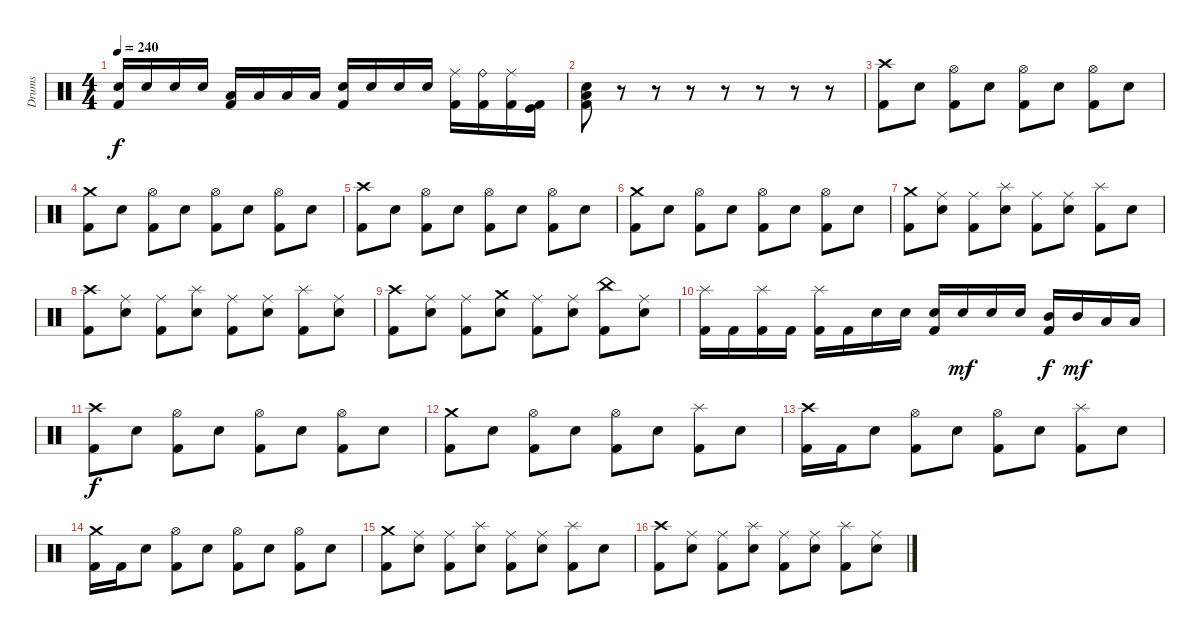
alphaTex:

\track ("Drums" "Drums") {instrument percussion}
\staff {score}
\articulation defaults
\ts (4 4)
\tempo 240
\clef neutral
\ks c
("Electric Snare (hit)" "Kick (hit) 2").16{dy f} "Electric Snare (hit)".16 "Electric Snare (hit)".16 "Electric Snare (hit)".16 ("Low Tom (hit)" "Kick (hit) 2").16 "Low Tom (hit)".16 "Low Tom (hit)".16 "Low Tom (hit)".16 ("Electric Snare (hit)" "Kick (hit) 2").16 "Electric Snare (hit)".16 "Electric Snare (hit)".16 "Electric Snare (hit)".16 ("Ride (middle)" "Kick (hit) 2").16 ("Ride (bell)" "Kick (hit) 2").16 ("Ride (middle)" "Kick (hit) 2").16 ("Kick (hit)" "Kick (hit) 2").16 |
("Low Floor Tom (hit)" "Electric Snare (hit)" "Kick (hit) 2").8 r.8 r.8 r.8 r.8 r.8 r.8 r.8 |
("Crash high (hit)" "Kick (hit) 2").8 "Electric Snare (hit)".8 ("Hi-Hat (open)" "Kick (hit) 2").8 "Electric Snare (hit)".8 ("Hi-Hat (open)" "Kick (hit) 2").8 "Electric Snare (hit)".8 ("Hi-Hat (open)" "Kick (hit) 2").8 "Electric Snare (hit)".8 |
("Crash medium (hit)" "Kick (hit) 2").8 "Electric Snare (hit)".8 ("Hi-Hat (open)" "Kick (hit) 2").8 "Electric Snare (hit)".8 ("Hi-Hat (open)" "Kick (hit) 2").8 "Electric Snare (hit)".8 ("Hi-Hat (open)" "Kick (hit) 2").8 "Electric Snare (hit)".8 |
("Crash high (hit)" "Kick (hit) 2").8 "Electric Snare (hit)".8 ("Hi-Hat (open)" "Kick (hit) 2").8 "Electric Snare (hit)".8 ("Hi-Hat (open)" "Kick (hit) 2").8 "Electric Snare (hit)".8 ("Hi-Hat (open)" "Kick (hit) 2").8 "Electric Snare (hit)".8 |
("Crash medium (hit)" "Kick (hit) 2").8 "Electric Snare (hit)".8 ("Hi-Hat (open)" "Kick (hit) 2").8 "Electric Snare (hit)".8 ("Hi-Hat (open)" "Kick (hit) 2").8 "Electric Snare (hit)".8 ("Hi-Hat (open)" "Kick (hit) 2").8 "Electric Snare (hit)".8 |
("Crash medium (hit)" "Kick (hit) 2").8 ("Ride (middle)" "Electric Snare (hit)").8 ("Ride (middle)" "Kick (hit) 2").8 ("Splash (hit)" "Electric Snare (hit)").8 ("Ride (middle)" "Kick (hit) 2").8 ("Ride (middle)" "Electric Snare (hit)").8 ("Splash (hit)" "Kick (hit) 2").8 "Electric Snare (hit)".8 |
("Crash high (hit)" "Kick (hit) 2").8 ("Ride (middle)" "Electric Snare (hit)").8 ("Ride (middle)" "Kick (hit) 2").8 ("Splash (hit)" "Electric Snare (hit)").8 ("Ride (middle)" "Kick (hit) 2").8 ("Ride (middle)" "Electric Snare (hit)").8 ("Splash (hit)" "Kick (hit) 2").8 ("Ride (middle)" "Electric Snare (hit)").8 |
("Crash high (hit)" "Kick (hit) 2").8 ("Ride (middle)" "Electric Snare (hit)").8 ("Ride (middle)" "Kick (hit) 2").8 ("Crash medium (hit)" "Electric Snare (hit)").8 ("Ride (middle)" "Kick (hit) 2").8 ("Ride (middle)" "Electric Snare (hit)").8 ("China (hit)" "Kick (hit) 2").8 ("Ride (middle)" "Electric Snare (hit)").8 |
("Splash (hit)" "Kick (hit) 2").16 "Kick (hit) 2".16 ("Splash (hit)" "Kick (hit) 2").16 "Kick (hit) 2".16 ("Splash (hit)" "Kick (hit) 2").16 "Kick (hit) 2".16 "Electric Snare (hit)".16 "Electric Snare (hit)".16 ("Electric Snare (hit)" "Kick (hit) 2").16 "Electric Snare (hit)".16{dy mf} "Electric Snare (hit)".16 "Electric Snare (hit)".16 ("Mid Tom (hit)" "Kick (hit) 2").16{dy f} "Mid Tom (hit)".16{dy mf} "Low Tom (hit)".16 "Low Tom (hit)".16 |
("Crash high (hit)" "Kick (hit) 2").8{dy f} "Electric Snare (hit)".8 ("Hi-Hat (open)" "Kick (hit) 2").8 "Electric Snare (hit)".8 ("Hi-Hat (open)" "Kick (hit) 2").8 "Electric Snare (hit)".8 ("Hi-Hat (open)" "Kick (hit) 2").8 "Electric Snare (hit)".8 |
("Crash medium (hit)" "Kick (hit) 2").8 "Electric Snare (hit)".8 ("Hi-Hat (open)" "Kick (hit) 2").8 "Electric Snare (hit)".8 ("Hi-Hat (open)" "Kick (hit) 2").8 "Electric Snare (hit)".8 ("Splash (hit)" "Kick (hit) 2").8 "Electric Snare (hit)".8 |
("Crash high (hit)" "Kick (hit) 2").16 "Kick (hit) 2".16 "Electric Snare (hit)".8 ("Hi-Hat (open)" "Kick (hit) 2").8 "Electric Snare (hit)".8 ("Hi-Hat (open)" "Kick (hit) 2").8 "Electric Snare (hit)".8 ("Splash (hit)" "Kick (hit) 2").8 "Electric Snare (hit)".8 |
("Crash medium (hit)" "Kick (hit) 2").16 "Kick (hit) 2".16 "Electric Snare (hit)".8 ("Hi-Hat (open)" "Kick (hit) 2").8 "Electric Snare (hit)".8 ("Hi-Hat (open)" "Kick (hit) 2").8 "Electric Snare (hit)".8 ("Hi-Hat (open)" "Kick (hit) 2").8 "Electric Snare (hit)".8 |
("Crash medium (hit)" "Kick (hit) 2").8 ("Ride (middle)" "Electric Snare (hit)").8 ("Ride (middle)" "Kick (hit) 2").8 ("Splash (hit)" "Electric Snare (hit)").8 ("Ride (middle)" "Kick (hit) 2").8 ("Ride (middle)" "Electric Snare (hit)").8 ("Splash (hit)" "Kick (hit) 2").8 "Electric Snare (hit)".8 |
("Crash high (hit)" "Kick (hit) 2").8 ("Ride (middle)" "Electric Snare (hit)").8 ("Ride (middle)" "Kick (hit) 2").8 ("Splash (hit)" "Electric Snare (hit)").8 ("Ride (middle)" "Kick (hit) 2").8 ("Ride (middle)" "Electric Snare (hit)").8 ("Splash (hit)" "Kick (hit) 2").8 ("Ride (middle)" "Electric Snare (hit)").8
